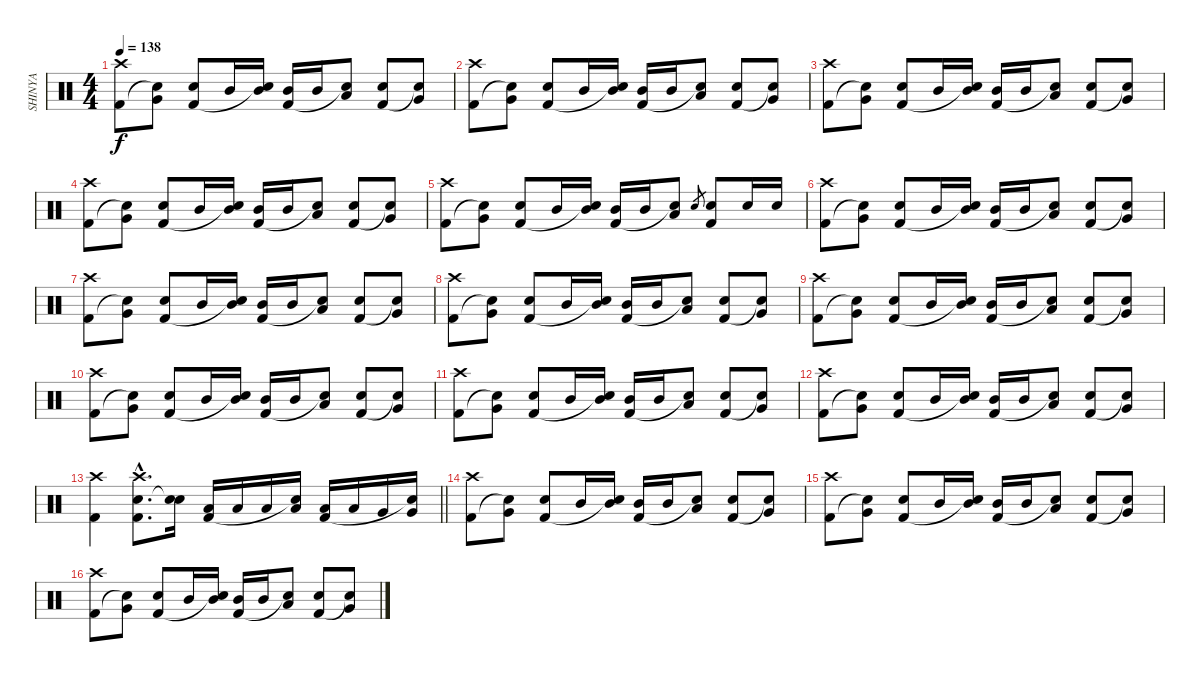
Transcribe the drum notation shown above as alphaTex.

\track ("SHINYA" "SHINYA") {instrument percussion}
\staff {score}
\articulation defaults
\ts (4 4)
\tempo 138
\clef neutral
\ks c
("Crash high (hit)" "Kick (hit) 2").8{dy f} ("Very Low Tom (hit)" "Snare (hit)"{t}).8 ("Electric Snare (hit)" "Kick (hit) 2").8 "Mid Tom (hit)".16 ("Mid Tom (hit)" "Snare (hit)"{t}).16 ("Mid Tom (hit)" "Kick (hit) 2").16 "Mid Tom (hit)".16 ("Low Tom (hit)" "Snare (hit)"{t}).8 ("Electric Snare (hit)" "Kick (hit) 2").8 ("Very Low Tom (hit)" "Snare (hit)"{t}).8 |
("Crash high (hit)" "Kick (hit) 2").8 ("Very Low Tom (hit)" "Snare (hit)"{t}).8 ("Electric Snare (hit)" "Kick (hit) 2").8 "Mid Tom (hit)".16 ("Mid Tom (hit)" "Snare (hit)"{t}).16 ("Mid Tom (hit)" "Kick (hit) 2").16 "Mid Tom (hit)".16 ("Low Tom (hit)" "Snare (hit)"{t}).8 ("Electric Snare (hit)" "Kick (hit) 2").8 ("Very Low Tom (hit)" "Snare (hit)"{t}).8 |
("Crash high (hit)" "Kick (hit) 2").8 ("Very Low Tom (hit)" "Snare (hit)"{t}).8 ("Electric Snare (hit)" "Kick (hit) 2").8 "Mid Tom (hit)".16 ("Mid Tom (hit)" "Snare (hit)"{t}).16 ("Mid Tom (hit)" "Kick (hit) 2").16 "Mid Tom (hit)".16 ("Low Tom (hit)" "Snare (hit)"{t}).8 ("Electric Snare (hit)" "Kick (hit) 2").8 ("Very Low Tom (hit)" "Snare (hit)"{t}).8 |
("Crash high (hit)" "Kick (hit) 2").8 ("Very Low Tom (hit)" "Snare (hit)"{t}).8 ("Electric Snare (hit)" "Kick (hit) 2").8 "Mid Tom (hit)".16 ("Mid Tom (hit)" "Snare (hit)"{t}).16 ("Mid Tom (hit)" "Kick (hit) 2").16 "Mid Tom (hit)".16 ("Low Tom (hit)" "Snare (hit)"{t}).8 ("Electric Snare (hit)" "Kick (hit) 2").8 ("Very Low Tom (hit)" "Snare (hit)"{t}).8 |
("Crash high (hit)" "Kick (hit) 2").8 ("Very Low Tom (hit)" "Snare (hit)"{t}).8 ("Electric Snare (hit)" "Kick (hit) 2").8 "Mid Tom (hit)".16 ("Mid Tom (hit)" "Snare (hit)"{t}).16 ("Mid Tom (hit)" "Kick (hit) 2").16 "Mid Tom (hit)".16 ("Low Tom (hit)" "Snare (hit)"{t}).8 "Electric Snare (hit)".8{gr} ("Electric Snare (hit)" "Kick (hit) 2").8 "Electric Snare (hit)".16 "Electric Snare (hit)".16 |
("Crash high (hit)" "Kick (hit) 2").8 ("Very Low Tom (hit)" "Snare (hit)"{t}).8 ("Electric Snare (hit)" "Kick (hit) 2").8 "Mid Tom (hit)".16 ("Mid Tom (hit)" "Snare (hit)"{t}).16 ("Mid Tom (hit)" "Kick (hit) 2").16 "Mid Tom (hit)".16 ("Low Tom (hit)" "Snare (hit)"{t}).8 ("Electric Snare (hit)" "Kick (hit) 2").8 ("Very Low Tom (hit)" "Snare (hit)"{t}).8 |
("Crash high (hit)" "Kick (hit) 2").8 ("Very Low Tom (hit)" "Snare (hit)"{t}).8 ("Electric Snare (hit)" "Kick (hit) 2").8 "Mid Tom (hit)".16 ("Mid Tom (hit)" "Snare (hit)"{t}).16 ("Mid Tom (hit)" "Kick (hit) 2").16 "Mid Tom (hit)".16 ("Low Tom (hit)" "Snare (hit)"{t}).8 ("Electric Snare (hit)" "Kick (hit) 2").8 ("Very Low Tom (hit)" "Snare (hit)"{t}).8 |
("Crash high (hit)" "Kick (hit) 2").8 ("Very Low Tom (hit)" "Snare (hit)"{t}).8 ("Electric Snare (hit)" "Kick (hit) 2").8 "Mid Tom (hit)".16 ("Mid Tom (hit)" "Snare (hit)"{t}).16 ("Mid Tom (hit)" "Kick (hit) 2").16 "Mid Tom (hit)".16 ("Low Tom (hit)" "Snare (hit)"{t}).8 ("Electric Snare (hit)" "Kick (hit) 2").8 ("Very Low Tom (hit)" "Snare (hit)"{t}).8 |
("Crash high (hit)" "Kick (hit) 2").8 ("Very Low Tom (hit)" "Snare (hit)"{t}).8 ("Electric Snare (hit)" "Kick (hit) 2").8 "Mid Tom (hit)".16 ("Mid Tom (hit)" "Snare (hit)"{t}).16 ("Mid Tom (hit)" "Kick (hit) 2").16 "Mid Tom (hit)".16 ("Low Tom (hit)" "Snare (hit)"{t}).8 ("Electric Snare (hit)" "Kick (hit) 2").8 ("Very Low Tom (hit)" "Snare (hit)"{t}).8 |
("Crash high (hit)" "Kick (hit) 2").8 ("Very Low Tom (hit)" "Snare (hit)"{t}).8 ("Electric Snare (hit)" "Kick (hit) 2").8 "Mid Tom (hit)".16 ("Mid Tom (hit)" "Snare (hit)"{t}).16 ("Mid Tom (hit)" "Kick (hit) 2").16 "Mid Tom (hit)".16 ("Low Tom (hit)" "Snare (hit)"{t}).8 ("Electric Snare (hit)" "Kick (hit) 2").8 ("Very Low Tom (hit)" "Snare (hit)"{t}).8 |
("Crash high (hit)" "Kick (hit) 2").8 ("Very Low Tom (hit)" "Snare (hit)"{t}).8 ("Electric Snare (hit)" "Kick (hit) 2").8 "Mid Tom (hit)".16 ("Mid Tom (hit)" "Snare (hit)"{t}).16 ("Mid Tom (hit)" "Kick (hit) 2").16 "Mid Tom (hit)".16 ("Low Tom (hit)" "Snare (hit)"{t}).8 ("Electric Snare (hit)" "Kick (hit) 2").8 ("Very Low Tom (hit)" "Snare (hit)"{t}).8 |
("Crash high (hit)" "Kick (hit) 2").8 ("Very Low Tom (hit)" "Snare (hit)"{t}).8 ("Electric Snare (hit)" "Kick (hit) 2").8 "Mid Tom (hit)".16 ("Mid Tom (hit)" "Snare (hit)"{t}).16 ("Mid Tom (hit)" "Kick (hit) 2").16 "Mid Tom (hit)".16 ("Low Tom (hit)" "Snare (hit)"{t}).8 ("Electric Snare (hit)" "Kick (hit) 2").8 ("Very Low Tom (hit)" "Snare (hit)"{t}).8 |
\barLineRight lightlight
("Crash high (hit)" "Kick (hit) 2").4 ("Crash high (hit)"{hac} "Electric Snare (hit)"{hac} "Kick (hit) 2"{hac}).8{d} ("Electric Snare (hit)" "Snare (hit)"{t}).16 ("Low Tom (hit)" "Kick (hit) 2").16 "Low Tom (hit)".16 "Low Tom (hit)".16 ("Low Tom (hit)" "Snare (hit)"{t}).16 ("Low Tom (hit)" "Kick (hit) 2").16 "Low Tom (hit)".16 "Very Low Tom (hit)".16 ("Very Low Tom (hit)" "Snare (hit)"{t}).16 |
("Crash high (hit)" "Kick (hit) 2").8 ("Very Low Tom (hit)" "Snare (hit)"{t}).8 ("Electric Snare (hit)" "Kick (hit) 2").8 "Mid Tom (hit)".16 ("Mid Tom (hit)" "Snare (hit)"{t}).16 ("Mid Tom (hit)" "Kick (hit) 2").16 "Mid Tom (hit)".16 ("Low Tom (hit)" "Snare (hit)"{t}).8 ("Electric Snare (hit)" "Kick (hit) 2").8 ("Very Low Tom (hit)" "Snare (hit)"{t}).8 |
("Crash high (hit)" "Kick (hit) 2").8 ("Very Low Tom (hit)" "Snare (hit)"{t}).8 ("Electric Snare (hit)" "Kick (hit) 2").8 "Mid Tom (hit)".16 ("Mid Tom (hit)" "Snare (hit)"{t}).16 ("Mid Tom (hit)" "Kick (hit) 2").16 "Mid Tom (hit)".16 ("Low Tom (hit)" "Snare (hit)"{t}).8 ("Electric Snare (hit)" "Kick (hit) 2").8 ("Very Low Tom (hit)" "Snare (hit)"{t}).8 |
("Crash high (hit)" "Kick (hit) 2").8 ("Very Low Tom (hit)" "Snare (hit)"{t}).8 ("Electric Snare (hit)" "Kick (hit) 2").8 "Mid Tom (hit)".16 ("Mid Tom (hit)" "Snare (hit)"{t}).16 ("Mid Tom (hit)" "Kick (hit) 2").16 "Mid Tom (hit)".16 ("Low Tom (hit)" "Snare (hit)"{t}).8 ("Electric Snare (hit)" "Kick (hit) 2").8 ("Very Low Tom (hit)" "Snare (hit)"{t}).8
